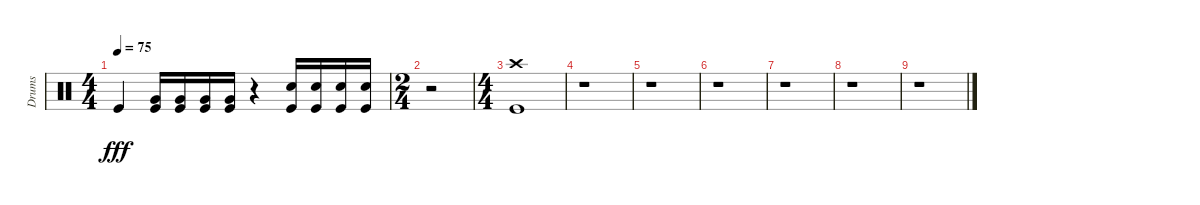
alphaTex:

\track ("Drums" "Drums") {instrument percussion}
\staff {score}
\articulation defaults
\ts (4 4)
\tempo 75
\clef neutral
\ks c "Kick (hit)".4{dy fff}
("Very Low Tom (hit)" "Kick (hit)").16 ("Very Low Tom (hit)" "Kick (hit)").16 ("Very Low Tom (hit)" "Kick (hit)").16 ("Very Low Tom (hit)" "Kick (hit)").16 r.4 ("Snare (hit) 2" "Kick (hit)").16 ("Snare (hit) 2" "Kick (hit)").16 ("Snare (hit) 2" "Kick (hit)").16 ("Snare (hit) 2" "Kick (hit)").16 |
\ts (2 4)
r.2 |
\ts (4 4)
("Crash high (hit)" "Kick (hit)").1 |
r.1 |
r.1 |
r.1 |
r.1 |
r.1 |
r.1
